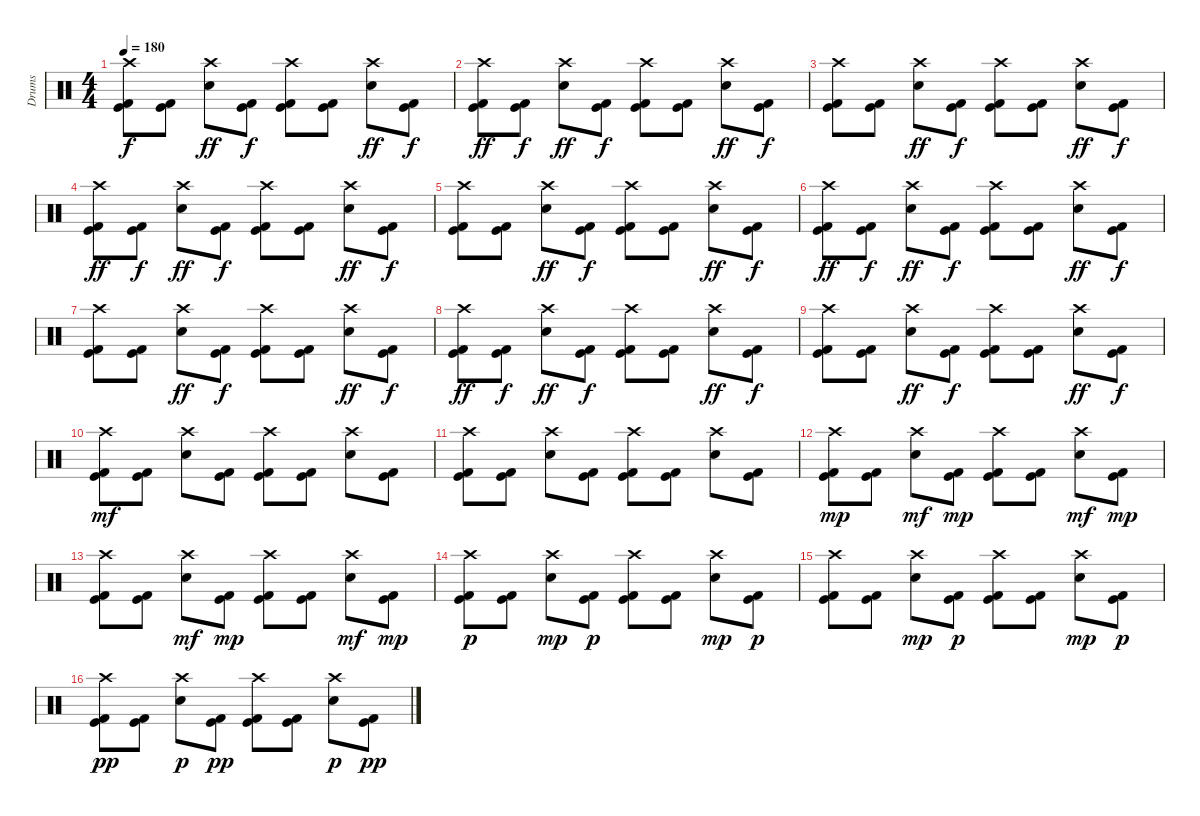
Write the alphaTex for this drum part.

\track ("Drums" "Drums") {instrument percussion}
\staff {score}
\articulation defaults
\ts (4 4)
\tempo 180
\clef neutral
\ks c
("Crash high (hit)" "Kick (hit)" "Kick (hit) 2").8{dy f} ("Kick (hit)" "Kick (hit) 2").8 ("Crash high (hit)" "Snare (hit) 2").8{dy ff} ("Kick (hit)" "Kick (hit) 2").8{dy f} ("Crash high (hit)" "Kick (hit)" "Kick (hit) 2").8 ("Kick (hit)" "Kick (hit) 2").8 ("Crash high (hit)" "Snare (hit) 2").8{dy ff} ("Kick (hit)" "Kick (hit) 2").8{dy f} |
("Crash high (hit)" "Kick (hit)" "Kick (hit) 2").8{dy ff} ("Kick (hit)" "Kick (hit) 2").8{dy f} ("Crash high (hit)" "Snare (hit) 2").8{dy ff} ("Kick (hit)" "Kick (hit) 2").8{dy f} ("Crash high (hit)" "Kick (hit)" "Kick (hit) 2").8 ("Kick (hit)" "Kick (hit) 2").8 ("Crash high (hit)" "Snare (hit) 2").8{dy ff} ("Kick (hit)" "Kick (hit) 2").8{dy f} |
("Crash high (hit)" "Kick (hit)" "Kick (hit) 2").8 ("Kick (hit)" "Kick (hit) 2").8 ("Crash high (hit)" "Snare (hit) 2").8{dy ff} ("Kick (hit)" "Kick (hit) 2").8{dy f} ("Crash high (hit)" "Kick (hit)" "Kick (hit) 2").8 ("Kick (hit)" "Kick (hit) 2").8 ("Crash high (hit)" "Snare (hit) 2").8{dy ff} ("Kick (hit)" "Kick (hit) 2").8{dy f} |
("Crash high (hit)" "Kick (hit)" "Kick (hit) 2").8{dy ff} ("Kick (hit)" "Kick (hit) 2").8{dy f} ("Crash high (hit)" "Snare (hit) 2").8{dy ff} ("Kick (hit)" "Kick (hit) 2").8{dy f} ("Crash high (hit)" "Kick (hit)" "Kick (hit) 2").8 ("Kick (hit)" "Kick (hit) 2").8 ("Crash high (hit)" "Snare (hit) 2").8{dy ff} ("Kick (hit)" "Kick (hit) 2").8{dy f} |
("Crash high (hit)" "Kick (hit)" "Kick (hit) 2").8 ("Kick (hit)" "Kick (hit) 2").8 ("Crash high (hit)" "Snare (hit) 2").8{dy ff} ("Kick (hit)" "Kick (hit) 2").8{dy f} ("Crash high (hit)" "Kick (hit)" "Kick (hit) 2").8 ("Kick (hit)" "Kick (hit) 2").8 ("Crash high (hit)" "Snare (hit) 2").8{dy ff} ("Kick (hit)" "Kick (hit) 2").8{dy f} |
("Crash high (hit)" "Kick (hit)" "Kick (hit) 2").8{dy ff} ("Kick (hit)" "Kick (hit) 2").8{dy f} ("Crash high (hit)" "Snare (hit) 2").8{dy ff} ("Kick (hit)" "Kick (hit) 2").8{dy f} ("Crash high (hit)" "Kick (hit)" "Kick (hit) 2").8 ("Kick (hit)" "Kick (hit) 2").8 ("Crash high (hit)" "Snare (hit) 2").8{dy ff} ("Kick (hit)" "Kick (hit) 2").8{dy f} |
("Crash high (hit)" "Kick (hit)" "Kick (hit) 2").8 ("Kick (hit)" "Kick (hit) 2").8 ("Crash high (hit)" "Snare (hit) 2").8{dy ff} ("Kick (hit)" "Kick (hit) 2").8{dy f} ("Crash high (hit)" "Kick (hit)" "Kick (hit) 2").8 ("Kick (hit)" "Kick (hit) 2").8 ("Crash high (hit)" "Snare (hit) 2").8{dy ff} ("Kick (hit)" "Kick (hit) 2").8{dy f} |
("Crash high (hit)" "Kick (hit)" "Kick (hit) 2").8{dy ff} ("Kick (hit)" "Kick (hit) 2").8{dy f} ("Crash high (hit)" "Snare (hit) 2").8{dy ff} ("Kick (hit)" "Kick (hit) 2").8{dy f} ("Crash high (hit)" "Kick (hit)" "Kick (hit) 2").8 ("Kick (hit)" "Kick (hit) 2").8 ("Crash high (hit)" "Snare (hit) 2").8{dy ff} ("Kick (hit)" "Kick (hit) 2").8{dy f} |
("Crash high (hit)" "Kick (hit)" "Kick (hit) 2").8 ("Kick (hit)" "Kick (hit) 2").8 ("Crash high (hit)" "Snare (hit) 2").8{dy ff} ("Kick (hit)" "Kick (hit) 2").8{dy f} ("Crash high (hit)" "Kick (hit)" "Kick (hit) 2").8 ("Kick (hit)" "Kick (hit) 2").8 ("Crash high (hit)" "Snare (hit) 2").8{dy ff} ("Kick (hit)" "Kick (hit) 2").8{dy f} |
("Crash high (hit)" "Kick (hit)" "Kick (hit) 2").8{dy mf} ("Kick (hit)" "Kick (hit) 2").8 ("Crash high (hit)" "Snare (hit) 2").8 ("Kick (hit)" "Kick (hit) 2").8 ("Crash high (hit)" "Kick (hit)" "Kick (hit) 2").8 ("Kick (hit)" "Kick (hit) 2").8 ("Crash high (hit)" "Snare (hit) 2").8 ("Kick (hit)" "Kick (hit) 2").8 |
("Crash high (hit)" "Kick (hit)" "Kick (hit) 2").8 ("Kick (hit)" "Kick (hit) 2").8 ("Crash high (hit)" "Snare (hit) 2").8 ("Kick (hit)" "Kick (hit) 2").8 ("Crash high (hit)" "Kick (hit)" "Kick (hit) 2").8 ("Kick (hit)" "Kick (hit) 2").8 ("Crash high (hit)" "Snare (hit) 2").8 ("Kick (hit)" "Kick (hit) 2").8 |
("Crash high (hit)" "Kick (hit)" "Kick (hit) 2").8{dy mp} ("Kick (hit)" "Kick (hit) 2").8 ("Crash high (hit)" "Snare (hit) 2").8{dy mf} ("Kick (hit)" "Kick (hit) 2").8{dy mp} ("Crash high (hit)" "Kick (hit)" "Kick (hit) 2").8 ("Kick (hit)" "Kick (hit) 2").8 ("Crash high (hit)" "Snare (hit) 2").8{dy mf} ("Kick (hit)" "Kick (hit) 2").8{dy mp} |
("Crash high (hit)" "Kick (hit)" "Kick (hit) 2").8 ("Kick (hit)" "Kick (hit) 2").8 ("Crash high (hit)" "Snare (hit) 2").8{dy mf} ("Kick (hit)" "Kick (hit) 2").8{dy mp} ("Crash high (hit)" "Kick (hit)" "Kick (hit) 2").8 ("Kick (hit)" "Kick (hit) 2").8 ("Crash high (hit)" "Snare (hit) 2").8{dy mf} ("Kick (hit)" "Kick (hit) 2").8{dy mp} |
("Crash high (hit)" "Kick (hit)" "Kick (hit) 2").8{dy p} ("Kick (hit)" "Kick (hit) 2").8 ("Crash high (hit)" "Snare (hit) 2").8{dy mp} ("Kick (hit)" "Kick (hit) 2").8{dy p} ("Crash high (hit)" "Kick (hit)" "Kick (hit) 2").8 ("Kick (hit)" "Kick (hit) 2").8 ("Crash high (hit)" "Snare (hit) 2").8{dy mp} ("Kick (hit)" "Kick (hit) 2").8{dy p} |
("Crash high (hit)" "Kick (hit)" "Kick (hit) 2").8 ("Kick (hit)" "Kick (hit) 2").8 ("Crash high (hit)" "Snare (hit) 2").8{dy mp} ("Kick (hit)" "Kick (hit) 2").8{dy p} ("Crash high (hit)" "Kick (hit)" "Kick (hit) 2").8 ("Kick (hit)" "Kick (hit) 2").8 ("Crash high (hit)" "Snare (hit) 2").8{dy mp} ("Kick (hit)" "Kick (hit) 2").8{dy p} |
("Crash high (hit)" "Kick (hit)" "Kick (hit) 2").8{dy pp} ("Kick (hit)" "Kick (hit) 2").8 ("Crash high (hit)" "Snare (hit) 2").8{dy p} ("Kick (hit)" "Kick (hit) 2").8{dy pp} ("Crash high (hit)" "Kick (hit)" "Kick (hit) 2").8 ("Kick (hit)" "Kick (hit) 2").8 ("Crash high (hit)" "Snare (hit) 2").8{dy p} ("Kick (hit)" "Kick (hit) 2").8{dy pp}
